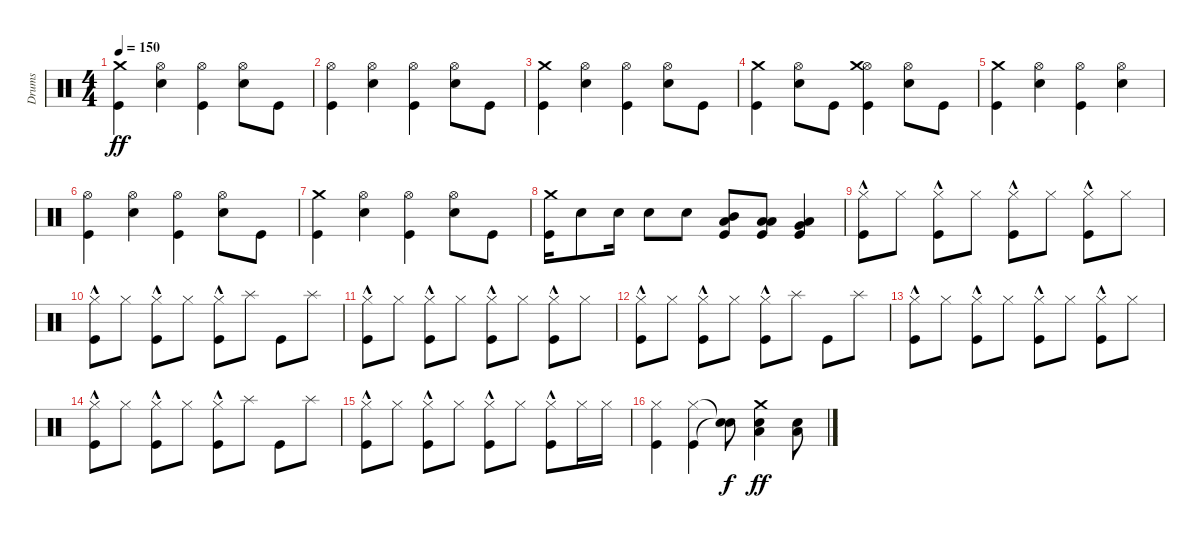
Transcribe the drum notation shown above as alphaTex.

\track ("Drums" "Drums") {instrument percussion}
\staff {score}
\articulation defaults
\ts (4 4)
\tempo 150
\clef neutral
\ks c
("Kick (hit)" "Crash medium (hit)").4{dy ff} ("Electric Snare (hit)" "Hi-Hat (open)").4 ("Kick (hit)" "Hi-Hat (open)").4 ("Electric Snare (hit)" "Hi-Hat (open)").8 "Kick (hit)".8 |
("Kick (hit)" "Hi-Hat (open)").4 ("Electric Snare (hit)" "Hi-Hat (open)").4 ("Kick (hit)" "Hi-Hat (open)").4 ("Electric Snare (hit)" "Hi-Hat (open)").8 "Kick (hit)".8 |
("Kick (hit)" "Crash medium (hit)").4 ("Electric Snare (hit)" "Hi-Hat (open)").4 ("Kick (hit)" "Hi-Hat (open)").4 ("Electric Snare (hit)" "Hi-Hat (open)").8 "Kick (hit)".8 |
("Kick (hit)" "Crash medium (hit)").4 ("Electric Snare (hit)" "Hi-Hat (open)").8 "Kick (hit)".8 ("Kick (hit)" "Hi-Hat (open)" "Crash medium (hit)").4 ("Electric Snare (hit)" "Hi-Hat (open)").8 "Kick (hit)".8 |
("Kick (hit)" "Crash medium (hit)").4 ("Electric Snare (hit)" "Hi-Hat (open)").4 ("Kick (hit)" "Hi-Hat (open)").4 ("Electric Snare (hit)" "Hi-Hat (open)").4 |
("Kick (hit)" "Hi-Hat (open)").4 ("Electric Snare (hit)" "Hi-Hat (open)").4 ("Kick (hit)" "Hi-Hat (open)").4 ("Electric Snare (hit)" "Hi-Hat (open)").8 "Kick (hit)".8 |
("Kick (hit)" "Crash medium (hit)").4 ("Electric Snare (hit)" "Hi-Hat (open)").4 ("Kick (hit)" "Hi-Hat (open)").4 ("Electric Snare (hit)" "Hi-Hat (open)").8 "Kick (hit)".8 |
("Kick (hit)" "Crash medium (hit)").16 "Electric Snare (hit)".8 "Electric Snare (hit)".16 "Electric Snare (hit)".8 "Electric Snare (hit)".8 ("Kick (hit)" "Low Floor Tom (hit)" "Mid Tom (hit)").8 ("Kick (hit)" "Low Floor Tom (hit)" "Low Tom (hit)").8 ("Kick (hit)" "Low Floor Tom (hit)" "Very Low Tom (hit)").4 |
("Kick (hit)"{hac} "Hi-Hat (closed)").8 "Hi-Hat (closed)".8 ("Kick (hit)"{hac} "Hi-Hat (closed)").8 "Hi-Hat (closed)".8 ("Kick (hit)"{hac} "Hi-Hat (closed)").8 "Hi-Hat (closed)".8 ("Kick (hit)"{hac} "Hi-Hat (closed)").8 "Hi-Hat (closed)".8 |
("Kick (hit)"{hac} "Hi-Hat (closed)").8 "Hi-Hat (closed)".8 ("Kick (hit)"{hac} "Hi-Hat (closed)").8 "Hi-Hat (closed)".8 ("Kick (hit)"{hac} "Hi-Hat (closed)").8 "Splash (hit)".8 "Kick (hit)".8 "Splash (hit)".8 |
("Kick (hit)"{hac} "Hi-Hat (closed)").8 "Hi-Hat (closed)".8 ("Kick (hit)"{hac} "Hi-Hat (closed)").8 "Hi-Hat (closed)".8 ("Kick (hit)"{hac} "Hi-Hat (closed)").8 "Hi-Hat (closed)".8 ("Kick (hit)"{hac} "Hi-Hat (closed)").8 "Hi-Hat (closed)".8 |
("Kick (hit)"{hac} "Hi-Hat (closed)").8 "Hi-Hat (closed)".8 ("Kick (hit)"{hac} "Hi-Hat (closed)").8 "Hi-Hat (closed)".8 ("Kick (hit)"{hac} "Hi-Hat (closed)").8 "Splash (hit)".8 "Kick (hit)".8 "Splash (hit)".8 |
("Kick (hit)"{hac} "Hi-Hat (closed)").8 "Hi-Hat (closed)".8 ("Kick (hit)"{hac} "Hi-Hat (closed)").8 "Hi-Hat (closed)".8 ("Kick (hit)"{hac} "Hi-Hat (closed)").8 "Hi-Hat (closed)".8 ("Kick (hit)"{hac} "Hi-Hat (closed)").8 "Hi-Hat (closed)".8 |
("Kick (hit)"{hac} "Hi-Hat (closed)").8 "Hi-Hat (closed)".8 ("Kick (hit)"{hac} "Hi-Hat (closed)").8 "Hi-Hat (closed)".8 ("Kick (hit)"{hac} "Hi-Hat (closed)").8 "Splash (hit)".8 "Kick (hit)".8 "Splash (hit)".8 |
("Kick (hit)"{hac} "Hi-Hat (closed)").8 "Hi-Hat (closed)".8 ("Kick (hit)"{hac} "Hi-Hat (closed)").8 "Hi-Hat (closed)".8 ("Kick (hit)"{hac} "Hi-Hat (closed)").8 "Hi-Hat (closed)".8 ("Kick (hit)"{hac} "Hi-Hat (closed)").8 "Hi-Hat (closed)".16 "Hi-Hat (closed)".16 |
("Kick (hit)" "Hi-Hat (closed)").4 ("Kick (hit)" "Hi-Hat (closed)").4 ("Snare (hit)"{t} "Snare (hit)"{t}).8{dy f} ("Electric Snare (hit)" "Low Tom (hit)" "Crash medium (hit)").4{dy ff} ("Electric Snare (hit)" "Low Tom (hit)").8
